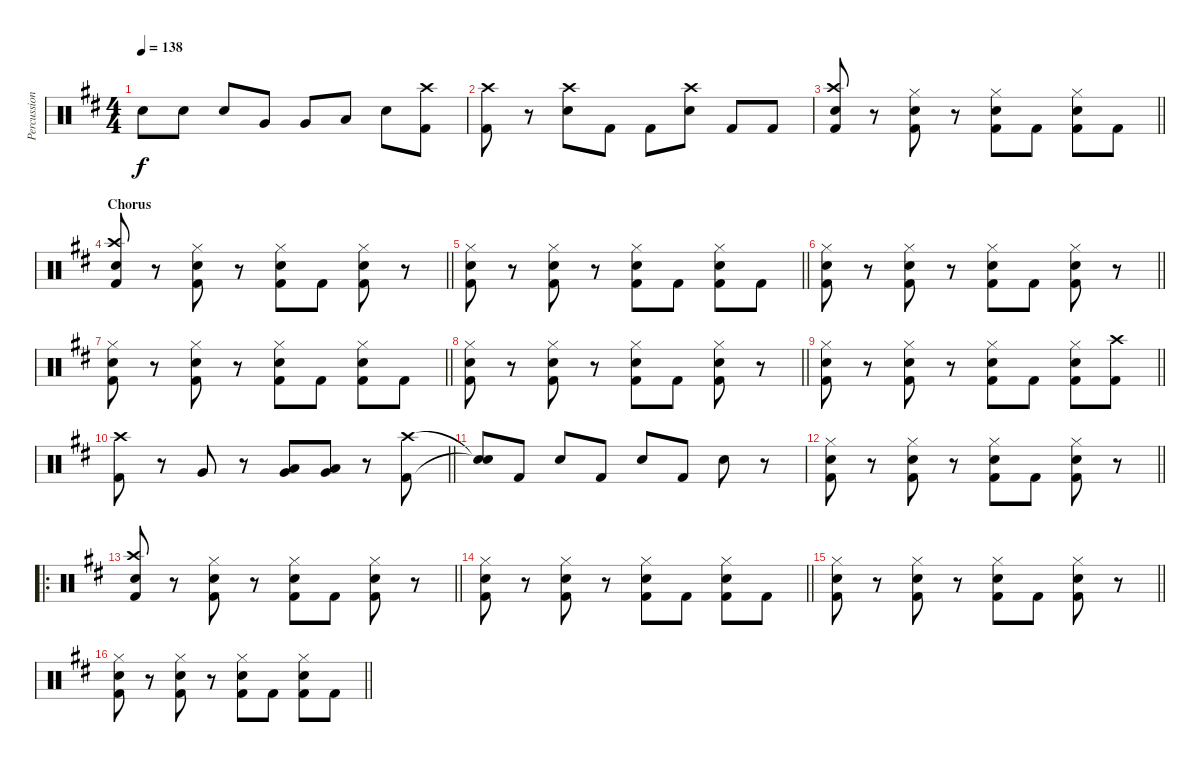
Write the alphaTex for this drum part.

\track ("Percussion" "Percussion") {instrument percussion}
\staff {score}
\articulation defaults
\ts (4 4)
\tempo 138
\clef neutral
\ks d "Snare (hit) 2".8{dy f} "Snare (hit) 2".8 "Snare (hit) 2".8 "Very Low Tom (hit)".8 "Very Low Tom (hit)".8 "Low Floor Tom (hit)".8 "Snare (hit) 2".8
("Crash high (hit)" "Kick (hit) 2").8 |
("Crash high (hit)" "Kick (hit) 2").8 r.8 ("Crash high (hit)" "Snare (hit) 2").8 "Kick (hit) 2".8 "Kick (hit) 2".8 ("Crash high (hit)" "Snare (hit) 2").8 "Kick (hit) 2".8 "Kick (hit) 2".8 |
\barLineRight lightlight
("Crash high (hit)" "Snare (hit) 2" "Kick (hit) 2").8 r.8 ("Hi-Hat (closed)" "Snare (hit) 2" "Kick (hit) 2").8 r.8 ("Hi-Hat (closed)" "Snare (hit) 2" "Kick (hit) 2").8 "Kick (hit) 2".8 ("Hi-Hat (closed)" "Snare (hit) 2" "Kick (hit) 2").8 "Kick (hit) 2".8 |
\section ("" "Chorus")
\barLineRight lightlight
("Crash high (hit)" "Snare (hit) 2" "Kick (hit) 2").8 r.8 ("Hi-Hat (closed)" "Snare (hit) 2" "Kick (hit) 2").8 r.8 ("Hi-Hat (closed)" "Snare (hit) 2" "Kick (hit) 2").8 "Kick (hit) 2".8 ("Hi-Hat (closed)" "Snare (hit) 2" "Kick (hit) 2").8 r.8 |
\barLineRight lightlight
("Hi-Hat (closed)" "Snare (hit) 2" "Kick (hit) 2").8 r.8 ("Hi-Hat (closed)" "Snare (hit) 2" "Kick (hit) 2").8 r.8 ("Hi-Hat (closed)" "Snare (hit) 2" "Kick (hit) 2").8 "Kick (hit) 2".8 ("Hi-Hat (closed)" "Snare (hit) 2" "Kick (hit) 2").8 "Kick (hit) 2".8 |
\barLineRight lightlight
("Hi-Hat (closed)" "Snare (hit) 2" "Kick (hit) 2").8 r.8 ("Hi-Hat (closed)" "Snare (hit) 2" "Kick (hit) 2").8 r.8 ("Hi-Hat (closed)" "Snare (hit) 2" "Kick (hit) 2").8 "Kick (hit) 2".8 ("Hi-Hat (closed)" "Snare (hit) 2" "Kick (hit) 2").8 r.8 |
\barLineRight lightlight
("Hi-Hat (closed)" "Snare (hit) 2" "Kick (hit) 2").8 r.8 ("Hi-Hat (closed)" "Snare (hit) 2" "Kick (hit) 2").8 r.8 ("Hi-Hat (closed)" "Snare (hit) 2" "Kick (hit) 2").8 "Kick (hit) 2".8 ("Hi-Hat (closed)" "Snare (hit) 2" "Kick (hit) 2").8 "Kick (hit) 2".8 |
\barLineRight lightlight
("Hi-Hat (closed)" "Snare (hit) 2" "Kick (hit) 2").8 r.8 ("Hi-Hat (closed)" "Snare (hit) 2" "Kick (hit) 2").8 r.8 ("Hi-Hat (closed)" "Snare (hit) 2" "Kick (hit) 2").8 "Kick (hit) 2".8 ("Hi-Hat (closed)" "Snare (hit) 2" "Kick (hit) 2").8 r.8 |
\barLineRight lightlight
("Hi-Hat (closed)" "Snare (hit) 2" "Kick (hit) 2").8 r.8 ("Hi-Hat (closed)" "Snare (hit) 2" "Kick (hit) 2").8 r.8 ("Hi-Hat (closed)" "Snare (hit) 2" "Kick (hit) 2").8 "Kick (hit) 2".8 ("Hi-Hat (closed)" "Snare (hit) 2" "Kick (hit) 2").8 ("Crash high (hit)" "Kick (hit) 2").8 |
\barLineRight lightlight
("Crash high (hit)" "Kick (hit) 2").8 r.8 "Very Low Tom (hit)".8 r.8 ("Very Low Tom (hit)" "Low Floor Tom (hit)").8 ("Very Low Tom (hit)" "Low Floor Tom (hit)").8 r.8 ("Crash high (hit)" "Kick (hit) 2").8 |
("Snare (hit)"{t} "Snare (hit)"{t}).8 "Kick (hit) 2".8 "Snare (hit) 2".8 "Kick (hit) 2".8 "Snare (hit) 2".8 "Kick (hit) 2".8 "Snare (hit) 2".8 r.8 |
\barLineRight lightlight
("Hi-Hat (closed)" "Snare (hit) 2" "Kick (hit) 2").8 r.8 ("Hi-Hat (closed)" "Snare (hit) 2" "Kick (hit) 2").8 r.8 ("Hi-Hat (closed)" "Snare (hit) 2" "Kick (hit) 2").8 "Kick (hit) 2".8 ("Hi-Hat (closed)" "Snare (hit) 2" "Kick (hit) 2").8 r.8 |
\ro
\barLineRight lightlight
("Crash high (hit)" "Snare (hit) 2" "Kick (hit) 2").8 r.8 ("Hi-Hat (closed)" "Snare (hit) 2" "Kick (hit) 2").8 r.8 ("Hi-Hat (closed)" "Snare (hit) 2" "Kick (hit) 2").8 "Kick (hit) 2".8 ("Hi-Hat (closed)" "Snare (hit) 2" "Kick (hit) 2").8 r.8 |
\barLineRight lightlight
("Hi-Hat (closed)" "Snare (hit) 2" "Kick (hit) 2").8 r.8 ("Hi-Hat (closed)" "Snare (hit) 2" "Kick (hit) 2").8 r.8 ("Hi-Hat (closed)" "Snare (hit) 2" "Kick (hit) 2").8 "Kick (hit) 2".8 ("Hi-Hat (closed)" "Snare (hit) 2" "Kick (hit) 2").8 "Kick (hit) 2".8 |
\barLineRight lightlight
("Hi-Hat (closed)" "Snare (hit) 2" "Kick (hit) 2").8 r.8 ("Hi-Hat (closed)" "Snare (hit) 2" "Kick (hit) 2").8 r.8 ("Hi-Hat (closed)" "Snare (hit) 2" "Kick (hit) 2").8 "Kick (hit) 2".8 ("Hi-Hat (closed)" "Snare (hit) 2" "Kick (hit) 2").8 r.8 |
\barLineRight lightlight
("Hi-Hat (closed)" "Snare (hit) 2" "Kick (hit) 2").8 r.8 ("Hi-Hat (closed)" "Snare (hit) 2" "Kick (hit) 2").8 r.8 ("Hi-Hat (closed)" "Snare (hit) 2" "Kick (hit) 2").8 "Kick (hit) 2".8 ("Hi-Hat (closed)" "Snare (hit) 2" "Kick (hit) 2").8 "Kick (hit) 2".8
